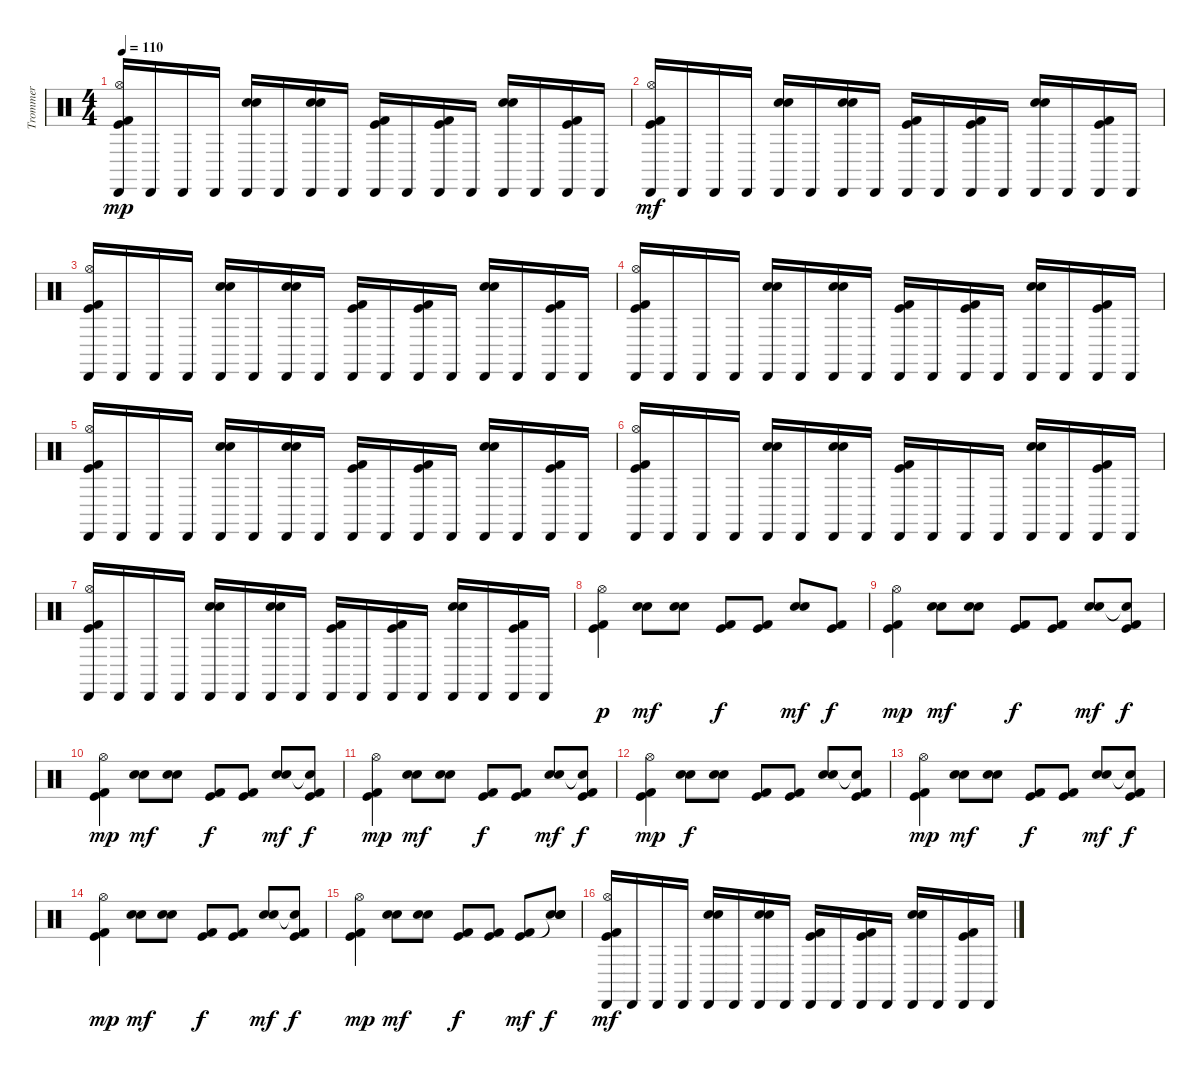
\track ("Trommer" "Trommer") {instrument percussion}
\staff {score}
\articulation defaults
\ts (4 4)
\tempo 110
\clef neutral
\ks c
("Cabasa (hit)" "Hi-Hat (open)" "Kick (hit)" "Kick (hit) 2").16{dy mp} "Cabasa (hit)".16 "Cabasa (hit)".16 "Cabasa (hit)".16 ("Cabasa (hit)" "Snare (hit) 2" "Electric Snare (hit)").16 "Cabasa (hit)".16 ("Cabasa (hit)" "Snare (hit) 2" "Electric Snare (hit)").16 "Cabasa (hit)".16 ("Cabasa (hit)" "Kick (hit)" "Kick (hit) 2").16 "Cabasa (hit)".16 ("Cabasa (hit)" "Kick (hit) 2" "Kick (hit)").16 "Cabasa (hit)".16 ("Cabasa (hit)" "Snare (hit) 2" "Electric Snare (hit)").16 "Cabasa (hit)".16 ("Cabasa (hit)" "Kick (hit) 2" "Kick (hit)").16 "Cabasa (hit)".16 |
("Cabasa (hit)" "Hi-Hat (open)" "Kick (hit)" "Kick (hit) 2").16{dy mf} "Cabasa (hit)".16 "Cabasa (hit)".16 "Cabasa (hit)".16 ("Cabasa (hit)" "Snare (hit) 2" "Electric Snare (hit)").16 "Cabasa (hit)".16 ("Cabasa (hit)" "Snare (hit) 2" "Electric Snare (hit)").16 "Cabasa (hit)".16 ("Cabasa (hit)" "Kick (hit)" "Kick (hit) 2").16 "Cabasa (hit)".16 ("Cabasa (hit)" "Kick (hit) 2" "Kick (hit)").16 "Cabasa (hit)".16 ("Cabasa (hit)" "Snare (hit) 2" "Electric Snare (hit)").16 "Cabasa (hit)".16 ("Cabasa (hit)" "Kick (hit) 2" "Kick (hit)").16 "Cabasa (hit)".16 |
("Cabasa (hit)" "Hi-Hat (open)" "Kick (hit)" "Kick (hit) 2").16 "Cabasa (hit)".16 "Cabasa (hit)".16 "Cabasa (hit)".16 ("Cabasa (hit)" "Snare (hit) 2" "Electric Snare (hit)").16 "Cabasa (hit)".16 ("Cabasa (hit)" "Snare (hit) 2" "Electric Snare (hit)").16 "Cabasa (hit)".16 ("Cabasa (hit)" "Kick (hit)" "Kick (hit) 2").16 "Cabasa (hit)".16 ("Cabasa (hit)" "Kick (hit) 2" "Kick (hit)").16 "Cabasa (hit)".16 ("Cabasa (hit)" "Snare (hit) 2" "Electric Snare (hit)").16 "Cabasa (hit)".16 ("Cabasa (hit)" "Kick (hit) 2" "Kick (hit)").16 "Cabasa (hit)".16 |
("Cabasa (hit)" "Hi-Hat (open)" "Kick (hit)" "Kick (hit) 2").16 "Cabasa (hit)".16 "Cabasa (hit)".16 "Cabasa (hit)".16 ("Cabasa (hit)" "Snare (hit) 2" "Electric Snare (hit)").16 "Cabasa (hit)".16 ("Cabasa (hit)" "Snare (hit) 2" "Electric Snare (hit)").16 "Cabasa (hit)".16 ("Cabasa (hit)" "Kick (hit)" "Kick (hit) 2").16 "Cabasa (hit)".16 ("Cabasa (hit)" "Kick (hit) 2" "Kick (hit)").16 "Cabasa (hit)".16 ("Cabasa (hit)" "Snare (hit) 2" "Electric Snare (hit)").16 "Cabasa (hit)".16 ("Cabasa (hit)" "Kick (hit) 2" "Kick (hit)").16 "Cabasa (hit)".16 |
("Cabasa (hit)" "Hi-Hat (open)" "Kick (hit)" "Kick (hit) 2").16 "Cabasa (hit)".16 "Cabasa (hit)".16 "Cabasa (hit)".16 ("Cabasa (hit)" "Snare (hit) 2" "Electric Snare (hit)").16 "Cabasa (hit)".16 ("Cabasa (hit)" "Snare (hit) 2" "Electric Snare (hit)").16 "Cabasa (hit)".16 ("Cabasa (hit)" "Kick (hit)" "Kick (hit) 2").16 "Cabasa (hit)".16 ("Cabasa (hit)" "Kick (hit) 2" "Kick (hit)").16 "Cabasa (hit)".16 ("Cabasa (hit)" "Snare (hit) 2" "Electric Snare (hit)").16 "Cabasa (hit)".16 ("Cabasa (hit)" "Kick (hit) 2" "Kick (hit)").16 "Cabasa (hit)".16 |
("Cabasa (hit)" "Hi-Hat (open)" "Kick (hit)" "Kick (hit) 2").16 "Cabasa (hit)".16 "Cabasa (hit)".16 "Cabasa (hit)".16 ("Cabasa (hit)" "Snare (hit) 2" "Electric Snare (hit)").16 "Cabasa (hit)".16 ("Cabasa (hit)" "Snare (hit) 2" "Electric Snare (hit)").16 "Cabasa (hit)".16 ("Cabasa (hit)" "Kick (hit) 2" "Kick (hit)").16 "Cabasa (hit)".16 "Cabasa (hit)".16 "Cabasa (hit)".16 ("Cabasa (hit)" "Snare (hit) 2" "Electric Snare (hit)").16 "Cabasa (hit)".16 ("Cabasa (hit)" "Kick (hit) 2" "Kick (hit)").16 "Cabasa (hit)".16 |
("Cabasa (hit)" "Hi-Hat (open)" "Kick (hit)" "Kick (hit) 2").16 "Cabasa (hit)".16 "Cabasa (hit)".16 "Cabasa (hit)".16 ("Cabasa (hit)" "Snare (hit) 2" "Electric Snare (hit)").16 "Cabasa (hit)".16 ("Cabasa (hit)" "Snare (hit) 2" "Electric Snare (hit)").16 "Cabasa (hit)".16 ("Cabasa (hit)" "Kick (hit)" "Kick (hit) 2").16 "Cabasa (hit)".16 ("Cabasa (hit)" "Kick (hit) 2" "Kick (hit)").16 "Cabasa (hit)".16 ("Cabasa (hit)" "Snare (hit) 2" "Electric Snare (hit)").16 "Cabasa (hit)".16 ("Cabasa (hit)" "Kick (hit) 2" "Kick (hit)").16 "Cabasa (hit)".16 |
("Hi-Hat (open)" "Kick (hit)" "Kick (hit) 2").4{dy p} ("Electric Snare (hit)" "Snare (hit) 2").8{dy mf} ("Snare (hit) 2" "Electric Snare (hit)").8 ("Kick (hit) 2" "Kick (hit)").8{dy f} ("Kick (hit)" "Kick (hit) 2").8 ("Snare (hit) 2" "Electric Snare (hit)").8{dy mf} ("Kick (hit)" "Kick (hit) 2").8{dy f} |
("Hi-Hat (open)" "Kick (hit)" "Kick (hit) 2").4{dy mp} ("Electric Snare (hit)" "Snare (hit) 2").8{dy mf} ("Snare (hit) 2" "Electric Snare (hit)").8 ("Kick (hit) 2" "Kick (hit)").8{dy f} ("Kick (hit)" "Kick (hit) 2").8 ("Snare (hit) 2" "Electric Snare (hit)").8{dy mf} ("Snare (hit)"{t} "Kick (hit)" "Kick (hit) 2").8{dy f} |
("Hi-Hat (open)" "Kick (hit)" "Kick (hit) 2").4{dy mp} ("Electric Snare (hit)" "Snare (hit) 2").8{dy mf} ("Snare (hit) 2" "Electric Snare (hit)").8 ("Kick (hit) 2" "Kick (hit)").8{dy f} ("Kick (hit)" "Kick (hit) 2").8 ("Snare (hit) 2" "Electric Snare (hit)").8{dy mf} ("Snare (hit)"{t} "Kick (hit)" "Kick (hit) 2").8{dy f} |
("Hi-Hat (open)" "Kick (hit)" "Kick (hit) 2").4{dy mp} ("Electric Snare (hit)" "Snare (hit) 2").8{dy mf} ("Snare (hit) 2" "Electric Snare (hit)").8 ("Kick (hit) 2" "Kick (hit)").8{dy f} ("Kick (hit)" "Kick (hit) 2").8 ("Snare (hit) 2" "Electric Snare (hit)").8{dy mf} ("Snare (hit)"{t} "Kick (hit)" "Kick (hit) 2").8{dy f} |
("Hi-Hat (open)" "Kick (hit)" "Kick (hit) 2").4{dy mp} ("Electric Snare (hit)" "Snare (hit) 2").8{dy f} ("Snare (hit) 2" "Electric Snare (hit)").8 ("Kick (hit) 2" "Kick (hit)").8 ("Kick (hit)" "Kick (hit) 2").8 ("Snare (hit) 2" "Electric Snare (hit)").8 ("Snare (hit)"{t} "Kick (hit)" "Kick (hit) 2").8 |
("Hi-Hat (open)" "Kick (hit)" "Kick (hit) 2").4{dy mp} ("Electric Snare (hit)" "Snare (hit) 2").8{dy mf} ("Snare (hit) 2" "Electric Snare (hit)").8 ("Kick (hit) 2" "Kick (hit)").8{dy f} ("Kick (hit)" "Kick (hit) 2").8 ("Snare (hit) 2" "Electric Snare (hit)").8{dy mf} ("Snare (hit)"{t} "Kick (hit)" "Kick (hit) 2").8{dy f} |
("Hi-Hat (open)" "Kick (hit)" "Kick (hit) 2").4{dy mp} ("Electric Snare (hit)" "Snare (hit) 2").8{dy mf} ("Snare (hit) 2" "Electric Snare (hit)").8 ("Kick (hit) 2" "Kick (hit)").8{dy f} ("Kick (hit)" "Kick (hit) 2").8 ("Snare (hit) 2" "Electric Snare (hit)").8{dy mf} ("Snare (hit)"{t} "Kick (hit)" "Kick (hit) 2").8{dy f} |
("Hi-Hat (open)" "Kick (hit)" "Kick (hit) 2").4{dy mp} ("Electric Snare (hit)" "Snare (hit) 2").8{dy mf} ("Snare (hit) 2" "Electric Snare (hit)").8 ("Kick (hit) 2" "Kick (hit)").8{dy f} ("Kick (hit)" "Kick (hit) 2").8 ("Kick (hit) 2" "Kick (hit)").8{dy mf} ("Snare (hit)"{t} "Snare (hit) 2" "Electric Snare (hit)").8{dy f} |
("Cabasa (hit)" "Hi-Hat (open)" "Kick (hit)" "Kick (hit) 2").16{dy mf} "Cabasa (hit)".16 "Cabasa (hit)".16 "Cabasa (hit)".16 ("Cabasa (hit)" "Snare (hit) 2" "Electric Snare (hit)").16 "Cabasa (hit)".16 ("Cabasa (hit)" "Snare (hit) 2" "Electric Snare (hit)").16 "Cabasa (hit)".16 ("Cabasa (hit)" "Kick (hit)" "Kick (hit) 2").16 "Cabasa (hit)".16 ("Cabasa (hit)" "Kick (hit) 2" "Kick (hit)").16 "Cabasa (hit)".16 ("Cabasa (hit)" "Snare (hit) 2" "Electric Snare (hit)").16 "Cabasa (hit)".16 ("Cabasa (hit)" "Kick (hit) 2" "Kick (hit)").16 "Cabasa (hit)".16
